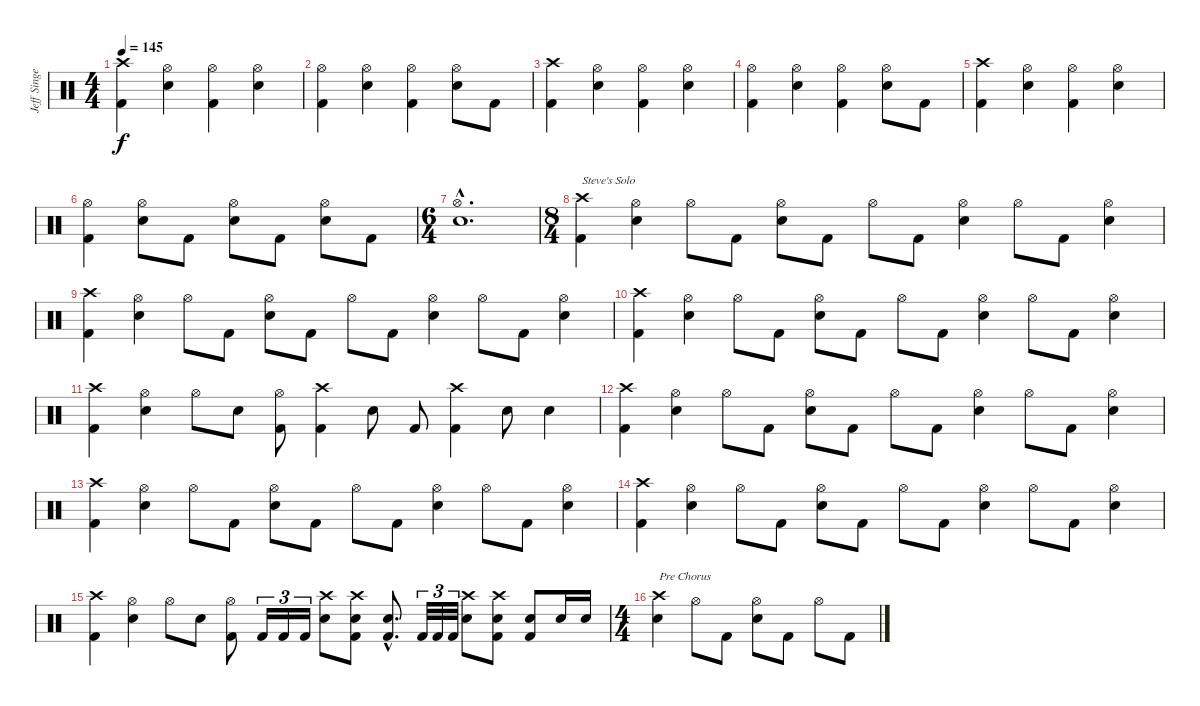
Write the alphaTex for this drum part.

\track ("Jeff Singer" "Jeff Singe") {instrument percussion}
\staff {score}
\articulation defaults
\ts (4 4)
\tempo 145
\clef neutral
\ks c
("Crash high (hit)" "Kick (hit) 2").4{dy f} ("Hi-Hat (open)" "Electric Snare (hit)").4 ("Hi-Hat (open)" "Kick (hit) 2").4 ("Hi-Hat (open)" "Electric Snare (hit)").4 |
("Hi-Hat (open)" "Kick (hit) 2").4 ("Hi-Hat (open)" "Electric Snare (hit)").4 ("Hi-Hat (open)" "Kick (hit) 2").4 ("Hi-Hat (open)" "Electric Snare (hit)").8 "Kick (hit) 2".8 |
("Crash high (hit)" "Kick (hit) 2").4 ("Hi-Hat (open)" "Electric Snare (hit)").4 ("Hi-Hat (open)" "Kick (hit) 2").4 ("Hi-Hat (open)" "Electric Snare (hit)").4 |
("Hi-Hat (open)" "Kick (hit) 2").4 ("Hi-Hat (open)" "Electric Snare (hit)").4 ("Hi-Hat (open)" "Kick (hit) 2").4 ("Hi-Hat (open)" "Electric Snare (hit)").8 "Kick (hit) 2".8 |
("Crash high (hit)" "Kick (hit) 2").4 ("Hi-Hat (open)" "Electric Snare (hit)").4 ("Hi-Hat (open)" "Kick (hit) 2").4 ("Hi-Hat (open)" "Electric Snare (hit)").4 |
("Hi-Hat (open)" "Kick (hit) 2").4 ("Hi-Hat (open)" "Electric Snare (hit)").8 "Kick (hit) 2".8 ("Hi-Hat (open)" "Electric Snare (hit)").8 "Kick (hit) 2".8 ("Hi-Hat (open)" "Electric Snare (hit)").8 "Kick (hit) 2".8 |
\ts (6 4)
("Hi-Hat (open)"{hac} "Electric Snare (hit)"{hac}).1{d} |
\ts (8 4)
("Crash high (hit)" "Kick (hit) 2").4{txt "Steve's Solo"} ("Hi-Hat (open)" "Electric Snare (hit)").4 "Hi-Hat (open)".8 "Kick (hit) 2".8 ("Hi-Hat (open)" "Electric Snare (hit)").8 "Kick (hit) 2".8 "Hi-Hat (open)".8 "Kick (hit) 2".8 ("Hi-Hat (open)" "Electric Snare (hit)").4 "Hi-Hat (open)".8 "Kick (hit) 2".8 ("Hi-Hat (open)" "Electric Snare (hit)").4 |
("Crash high (hit)" "Kick (hit) 2").4 ("Hi-Hat (open)" "Electric Snare (hit)").4 "Hi-Hat (open)".8 "Kick (hit) 2".8 ("Hi-Hat (open)" "Electric Snare (hit)").8 "Kick (hit) 2".8 "Hi-Hat (open)".8 "Kick (hit) 2".8 ("Hi-Hat (open)" "Electric Snare (hit)").4 "Hi-Hat (open)".8 "Kick (hit) 2".8 ("Hi-Hat (open)" "Electric Snare (hit)").4 |
("Crash high (hit)" "Kick (hit) 2").4 ("Hi-Hat (open)" "Electric Snare (hit)").4 "Hi-Hat (open)".8 "Kick (hit) 2".8 ("Hi-Hat (open)" "Electric Snare (hit)").8 "Kick (hit) 2".8 "Hi-Hat (open)".8 "Kick (hit) 2".8 ("Hi-Hat (open)" "Electric Snare (hit)").4 "Hi-Hat (open)".8 "Kick (hit) 2".8 ("Hi-Hat (open)" "Electric Snare (hit)").4 |
("Crash high (hit)" "Kick (hit) 2").4 ("Hi-Hat (open)" "Electric Snare (hit)").4 "Hi-Hat (open)".8 "Electric Snare (hit)".8 ("Hi-Hat (open)" "Kick (hit) 2").8 ("Crash high (hit)" "Kick (hit) 2").4 "Electric Snare (hit)".8 "Kick (hit) 2".8 ("Crash high (hit)" "Kick (hit) 2").4 "Electric Snare (hit)".8 "Electric Snare (hit)".4 |
("Crash high (hit)" "Kick (hit) 2").4 ("Hi-Hat (open)" "Electric Snare (hit)").4 "Hi-Hat (open)".8 "Kick (hit) 2".8 ("Hi-Hat (open)" "Electric Snare (hit)").8 "Kick (hit) 2".8 "Hi-Hat (open)".8 "Kick (hit) 2".8 ("Hi-Hat (open)" "Electric Snare (hit)").4 "Hi-Hat (open)".8 "Kick (hit) 2".8 ("Hi-Hat (open)" "Electric Snare (hit)").4 |
("Crash high (hit)" "Kick (hit) 2").4 ("Hi-Hat (open)" "Electric Snare (hit)").4 "Hi-Hat (open)".8 "Kick (hit) 2".8 ("Hi-Hat (open)" "Electric Snare (hit)").8 "Kick (hit) 2".8 "Hi-Hat (open)".8 "Kick (hit) 2".8 ("Hi-Hat (open)" "Electric Snare (hit)").4 "Hi-Hat (open)".8 "Kick (hit) 2".8 ("Hi-Hat (open)" "Electric Snare (hit)").4 |
("Crash high (hit)" "Kick (hit) 2").4 ("Hi-Hat (open)" "Electric Snare (hit)").4 "Hi-Hat (open)".8 "Kick (hit) 2".8 ("Hi-Hat (open)" "Electric Snare (hit)").8 "Kick (hit) 2".8 "Hi-Hat (open)".8 "Kick (hit) 2".8 ("Hi-Hat (open)" "Electric Snare (hit)").4 "Hi-Hat (open)".8 "Kick (hit) 2".8 ("Hi-Hat (open)" "Electric Snare (hit)").4 |
("Crash high (hit)" "Kick (hit) 2").4 ("Hi-Hat (open)" "Electric Snare (hit)").4 "Hi-Hat (open)".8 "Electric Snare (hit)".8 ("Hi-Hat (open)" "Kick (hit) 2").8 "Kick (hit) 2".16{tu (3 2)} "Kick (hit) 2".16{tu (3 2)} "Kick (hit) 2".16{tu (3 2)} ("Crash high (hit)" "Electric Snare (hit)").8 ("Crash high (hit)" "Electric Snare (hit)" "Kick (hit) 2").8 ("Electric Snare (hit)"{hac} "Kick (hit) 2"{hac}).8{d} "Kick (hit) 2".32{tu (3 2)} "Kick (hit) 2".32{tu (3 2)} "Kick (hit) 2".32{tu (3 2)} ("Crash high (hit)" "Electric Snare (hit)").8 ("Crash high (hit)" "Electric Snare (hit)" "Kick (hit) 2").8 ("Electric Snare (hit)" "Kick (hit) 2").8 "Electric Snare (hit)".16 "Electric Snare (hit)".16 |
\ts (4 4)
("Crash high (hit)" "Electric Snare (hit)").4{txt "Pre Chorus"} "Hi-Hat (open)".8 "Kick (hit) 2".8 ("Hi-Hat (open)" "Electric Snare (hit)").8 "Kick (hit) 2".8 "Hi-Hat (open)".8 "Kick (hit) 2".8
